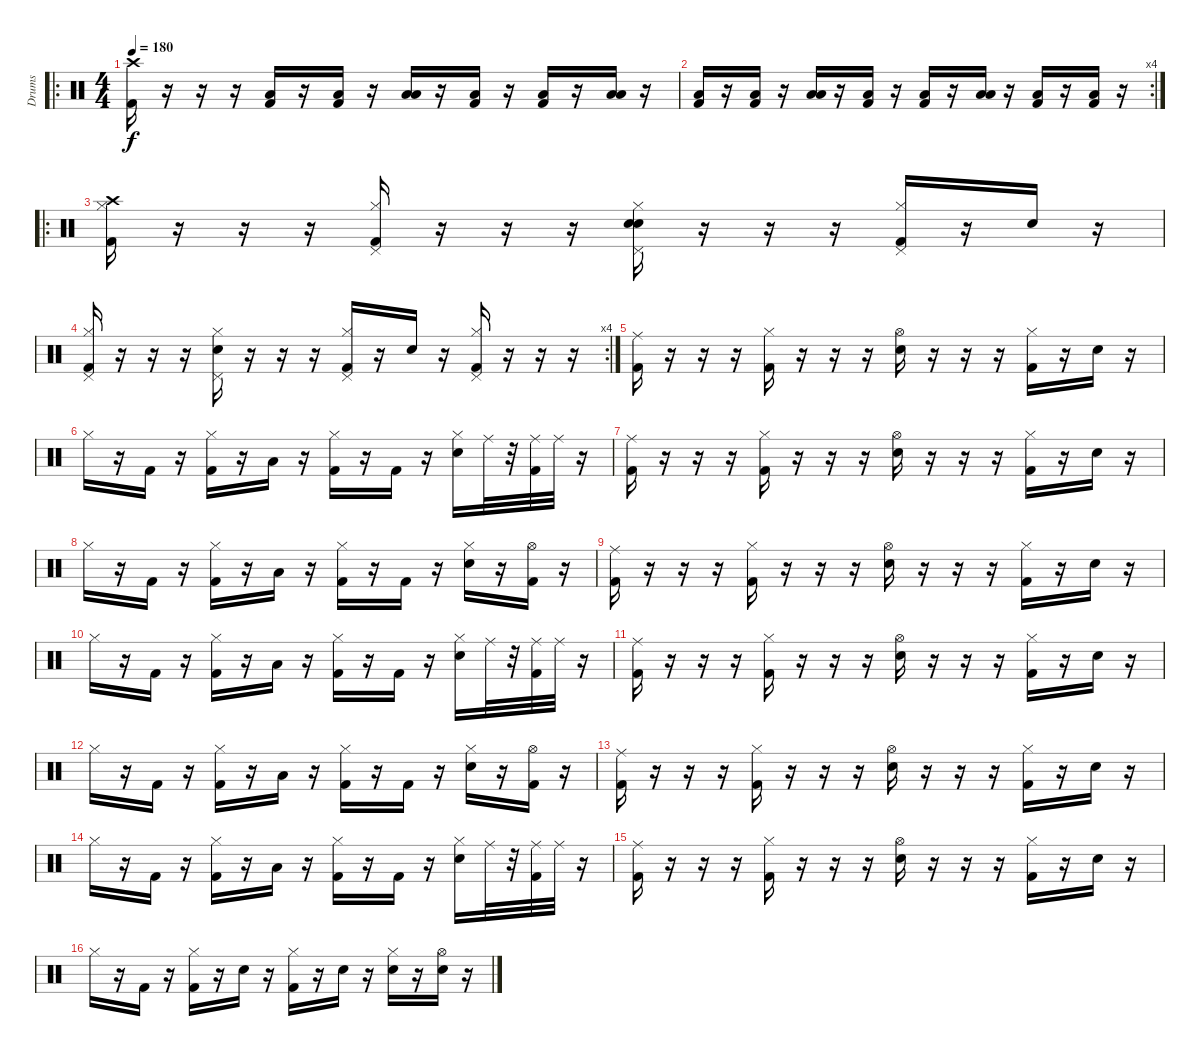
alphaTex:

\track ("Drums" "Drums") {instrument percussion}
\staff {score}
\articulation defaults
\ro
\ts (4 4)
\tempo 180
\clef neutral
\ks c
("Crash high (hit)" "Kick (hit) 2").16{dy f} r.16 r.16 r.16 ("Low Tom (hit)" "Kick (hit) 2").16 r.16 ("Low Tom (hit)" "Kick (hit) 2").16 r.16 ("Low Floor Tom (hit)" "Low Floor Tom (hit)").16 r.16 ("Low Tom (hit)" "Kick (hit) 2").16 r.16 ("Low Tom (hit)" "Kick (hit) 2").16 r.16 ("Low Floor Tom (hit)" "Low Floor Tom (hit)").16 r.16 |
\rc 4
("Low Tom (hit)" "Kick (hit) 2").16 r.16 ("Low Tom (hit)" "Kick (hit) 2").16 r.16 ("Low Floor Tom (hit)" "Low Floor Tom (hit)").16 r.16 ("Low Tom (hit)" "Kick (hit) 2").16 r.16 ("Low Tom (hit)" "Kick (hit) 2").16 r.16 ("Low Floor Tom (hit)" "Low Floor Tom (hit)").16 r.16 ("Low Tom (hit)" "Kick (hit) 2").16 r.16 ("Low Tom (hit)" "Kick (hit) 2").16 r.16 |
\ro
("Crash high (hit)" "Hi-Hat (closed)" "Kick (hit) 2").16 r.16 r.16 r.16 ("Pedal Hi-Hat (hit)" "Hi-Hat (closed)" "Kick (hit) 2").16 r.16 r.16 r.16 ("Pedal Hi-Hat (hit)" "Hi-Hat (closed)" "Snare (hit)" "Electric Snare (hit)").16 r.16 r.16 r.16 ("Pedal Hi-Hat (hit)" "Hi-Hat (closed)" "Kick (hit) 2").16 r.16 "Electric Snare (hit)".16 r.16 |
\rc 4
("Pedal Hi-Hat (hit)" "Hi-Hat (closed)" "Kick (hit) 2").16 r.16 r.16 r.16 ("Pedal Hi-Hat (hit)" "Hi-Hat (closed)" "Electric Snare (hit)").16 r.16 r.16 r.16 ("Pedal Hi-Hat (hit)" "Hi-Hat (closed)" "Kick (hit) 2").16 r.16 "Electric Snare (hit)".16 r.16 ("Pedal Hi-Hat (hit)" "Hi-Hat (closed)" "Kick (hit) 2").16 r.16 r.16 r.16 |
("Ride (middle)" "Kick (hit) 2").16 r.16 r.16 r.16 ("Hi-Hat (closed)" "Kick (hit) 2").16 r.16 r.16 r.16 ("Hi-Hat (open)" "Electric Snare (hit)").16 r.16 r.16 r.16 ("Hi-Hat (closed)" "Kick (hit) 2").16 r.16 "Electric Snare (hit)".16 r.16 |
"Hi-Hat (closed)".16 r.16 "Kick (hit) 2".16 r.16 ("Hi-Hat (closed)" "Kick (hit) 2").16 r.16 "Low Floor Tom (hit)".16 r.16 ("Hi-Hat (closed)" "Kick (hit) 2").16 r.16 "Kick (hit) 2".16 r.16 ("Hi-Hat (closed)" "Electric Snare (hit)").16 "Ride (middle)".32 r.32 ("Ride (middle)" "Kick (hit) 2").32 "Ride (middle)".32 r.16 |
("Ride (middle)" "Kick (hit) 2").16 r.16 r.16 r.16 ("Hi-Hat (closed)" "Kick (hit) 2").16 r.16 r.16 r.16 ("Hi-Hat (open)" "Electric Snare (hit)").16 r.16 r.16 r.16 ("Hi-Hat (closed)" "Kick (hit) 2").16 r.16 "Electric Snare (hit)".16 r.16 |
"Hi-Hat (closed)".16 r.16 "Kick (hit) 2".16 r.16 ("Hi-Hat (closed)" "Kick (hit) 2").16 r.16 "Low Floor Tom (hit)".16 r.16 ("Hi-Hat (closed)" "Kick (hit) 2").16 r.16 "Kick (hit) 2".16 r.16 ("Hi-Hat (closed)" "Electric Snare (hit)").16 r.16 ("Hi-Hat (open)" "Kick (hit) 2").16 r.16 |
("Ride (middle)" "Kick (hit) 2").16 r.16 r.16 r.16 ("Hi-Hat (closed)" "Kick (hit) 2").16 r.16 r.16 r.16 ("Hi-Hat (open)" "Electric Snare (hit)").16 r.16 r.16 r.16 ("Hi-Hat (closed)" "Kick (hit) 2").16 r.16 "Electric Snare (hit)".16 r.16 |
"Hi-Hat (closed)".16 r.16 "Kick (hit) 2".16 r.16 ("Hi-Hat (closed)" "Kick (hit) 2").16 r.16 "Low Floor Tom (hit)".16 r.16 ("Hi-Hat (closed)" "Kick (hit) 2").16 r.16 "Kick (hit) 2".16 r.16 ("Hi-Hat (closed)" "Electric Snare (hit)").16 "Ride (middle)".32 r.32 ("Ride (middle)" "Kick (hit) 2").32 "Ride (middle)".32 r.16 |
("Ride (middle)" "Kick (hit) 2").16 r.16 r.16 r.16 ("Hi-Hat (closed)" "Kick (hit) 2").16 r.16 r.16 r.16 ("Hi-Hat (open)" "Electric Snare (hit)").16 r.16 r.16 r.16 ("Hi-Hat (closed)" "Kick (hit) 2").16 r.16 "Electric Snare (hit)".16 r.16 |
"Hi-Hat (closed)".16 r.16 "Kick (hit) 2".16 r.16 ("Hi-Hat (closed)" "Kick (hit) 2").16 r.16 "Low Floor Tom (hit)".16 r.16 ("Hi-Hat (closed)" "Kick (hit) 2").16 r.16 "Kick (hit) 2".16 r.16 ("Hi-Hat (closed)" "Electric Snare (hit)").16 r.16 ("Hi-Hat (open)" "Kick (hit) 2").16 r.16 |
("Ride (middle)" "Kick (hit) 2").16 r.16 r.16 r.16 ("Hi-Hat (closed)" "Kick (hit) 2").16 r.16 r.16 r.16 ("Hi-Hat (open)" "Electric Snare (hit)").16 r.16 r.16 r.16 ("Hi-Hat (closed)" "Kick (hit) 2").16 r.16 "Electric Snare (hit)".16 r.16 |
"Hi-Hat (closed)".16 r.16 "Kick (hit) 2".16 r.16 ("Hi-Hat (closed)" "Kick (hit) 2").16 r.16 "Low Floor Tom (hit)".16 r.16 ("Hi-Hat (closed)" "Kick (hit) 2").16 r.16 "Kick (hit) 2".16 r.16 ("Hi-Hat (closed)" "Electric Snare (hit)").16 "Ride (middle)".32 r.32 ("Ride (middle)" "Kick (hit) 2").32 "Ride (middle)".32 r.16 |
("Ride (middle)" "Kick (hit) 2").16 r.16 r.16 r.16 ("Hi-Hat (closed)" "Kick (hit) 2").16 r.16 r.16 r.16 ("Hi-Hat (open)" "Electric Snare (hit)").16 r.16 r.16 r.16 ("Hi-Hat (closed)" "Kick (hit) 2").16 r.16 "Electric Snare (hit)".16 r.16 |
"Hi-Hat (closed)".16 r.16 "Kick (hit) 2".16 r.16 ("Hi-Hat (closed)" "Kick (hit) 2").16 r.16 "Electric Snare (hit)".16 r.16 ("Hi-Hat (closed)" "Kick (hit) 2").16 r.16 "Electric Snare (hit)".16 r.16 ("Hi-Hat (closed)" "Electric Snare (hit)").16 r.16 ("Hi-Hat (open)" "Electric Snare (hit)").16 r.16
